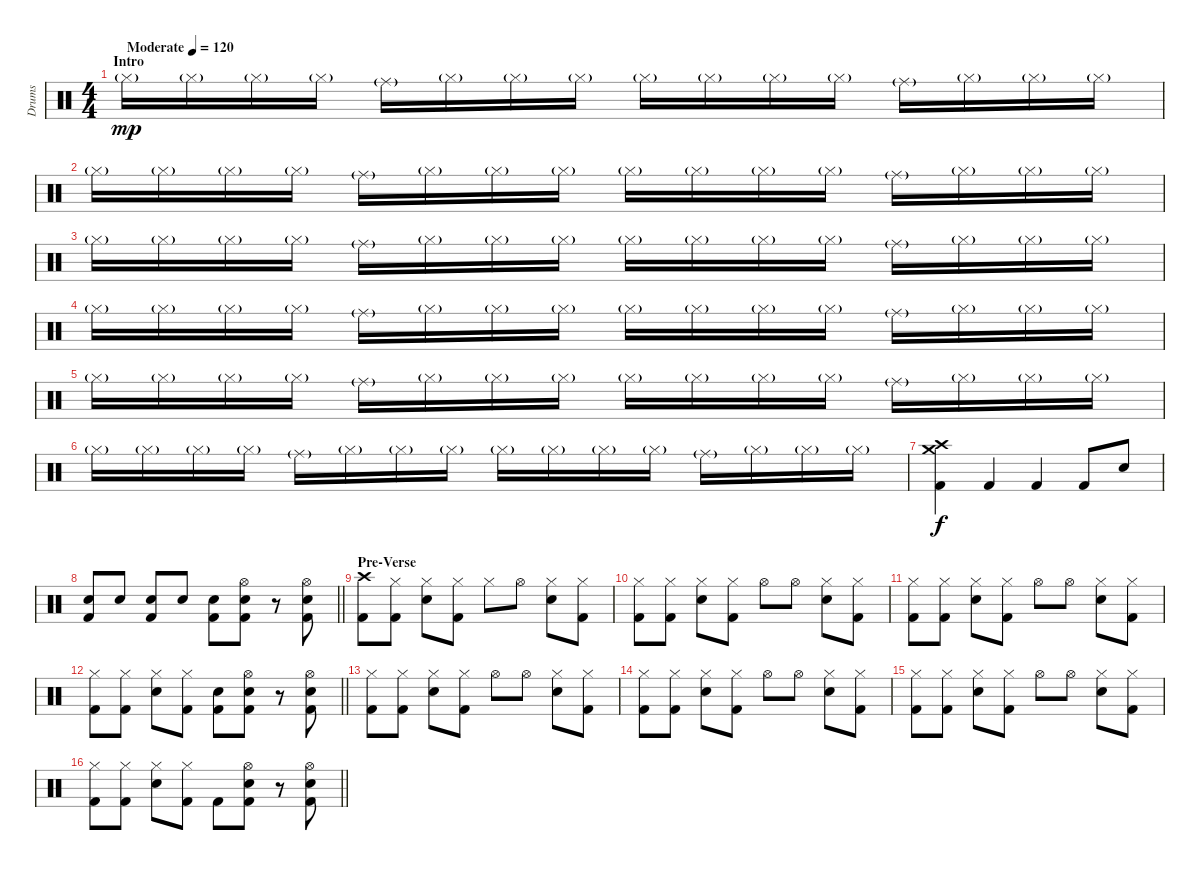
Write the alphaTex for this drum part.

\track ("Drums" "Drums") {instrument percussion}
\staff {score}
\articulation defaults
\ts (4 4)
\section ("" "Intro")
\tempo (120 "Moderate")
\clef neutral
\ks c "Hi-Hat (closed)"{g}.16{dy mp volume 11} "Hi-Hat (closed)"{g}.16 "Hi-Hat (closed)"{g}.16 "Hi-Hat (closed)"{g}.16 "Ride (middle)"{g}.16 "Hi-Hat (closed)"{g}.16 "Hi-Hat (closed)"{g}.16 "Hi-Hat (closed)"{g}.16 "Hi-Hat (closed)"{g}.16 "Hi-Hat (closed)"{g}.16 "Hi-Hat (closed)"{g}.16 "Hi-Hat (closed)"{g}.16 "Ride (middle)"{g}.16 "Hi-Hat (closed)"{g}.16 "Hi-Hat (closed)"{g}.16 "Hi-Hat (closed)"{g}.16
|
"Hi-Hat (closed)"{g}.16 "Hi-Hat (closed)"{g}.16 "Hi-Hat (closed)"{g}.16 "Hi-Hat (closed)"{g}.16 "Ride (middle)"{g}.16 "Hi-Hat (closed)"{g}.16 "Hi-Hat (closed)"{g}.16 "Hi-Hat (closed)"{g}.16 "Hi-Hat (closed)"{g}.16 "Hi-Hat (closed)"{g}.16 "Hi-Hat (closed)"{g}.16 "Hi-Hat (closed)"{g}.16 "Ride (middle)"{g}.16 "Hi-Hat (closed)"{g}.16 "Hi-Hat (closed)"{g}.16 "Hi-Hat (closed)"{g}.16 |
"Hi-Hat (closed)"{g}.16 "Hi-Hat (closed)"{g}.16 "Hi-Hat (closed)"{g}.16 "Hi-Hat (closed)"{g}.16 "Ride (middle)"{g}.16 "Hi-Hat (closed)"{g}.16 "Hi-Hat (closed)"{g}.16 "Hi-Hat (closed)"{g}.16 "Hi-Hat (closed)"{g}.16 "Hi-Hat (closed)"{g}.16 "Hi-Hat (closed)"{g}.16 "Hi-Hat (closed)"{g}.16 "Ride (middle)"{g}.16 "Hi-Hat (closed)"{g}.16 "Hi-Hat (closed)"{g}.16 "Hi-Hat (closed)"{g}.16 |
"Hi-Hat (closed)"{g}.16 "Hi-Hat (closed)"{g}.16 "Hi-Hat (closed)"{g}.16 "Hi-Hat (closed)"{g}.16 "Ride (middle)"{g}.16 "Hi-Hat (closed)"{g}.16 "Hi-Hat (closed)"{g}.16 "Hi-Hat (closed)"{g}.16 "Hi-Hat (closed)"{g}.16 "Hi-Hat (closed)"{g}.16 "Hi-Hat (closed)"{g}.16 "Hi-Hat (closed)"{g}.16 "Ride (middle)"{g}.16 "Hi-Hat (closed)"{g}.16 "Hi-Hat (closed)"{g}.16 "Hi-Hat (closed)"{g}.16 |
"Hi-Hat (closed)"{g}.16 "Hi-Hat (closed)"{g}.16 "Hi-Hat (closed)"{g}.16 "Hi-Hat (closed)"{g}.16 "Ride (middle)"{g}.16 "Hi-Hat (closed)"{g}.16 "Hi-Hat (closed)"{g}.16 "Hi-Hat (closed)"{g}.16 "Hi-Hat (closed)"{g}.16 "Hi-Hat (closed)"{g}.16 "Hi-Hat (closed)"{g}.16 "Hi-Hat (closed)"{g}.16 "Ride (middle)"{g}.16 "Hi-Hat (closed)"{g}.16 "Hi-Hat (closed)"{g}.16 "Hi-Hat (closed)"{g}.16 |
"Hi-Hat (closed)"{g}.16 "Hi-Hat (closed)"{g}.16 "Hi-Hat (closed)"{g}.16 "Hi-Hat (closed)"{g}.16 "Ride (middle)"{g}.16 "Hi-Hat (closed)"{g}.16 "Hi-Hat (closed)"{g}.16 "Hi-Hat (closed)"{g}.16 "Hi-Hat (closed)"{g}.16 "Hi-Hat (closed)"{g}.16 "Hi-Hat (closed)"{g}.16 "Hi-Hat (closed)"{g}.16 "Ride (middle)"{g}.16 "Hi-Hat (closed)"{g}.16 "Hi-Hat (closed)"{g}.16 "Hi-Hat (closed)"{g}.16 |
("Crash high (hit)" "Crash medium (hit)" "Kick (hit) 2").4{dy f volume 14} "Kick (hit) 2".4 "Kick (hit) 2".4 "Kick (hit) 2".8 "Electric Snare (hit)".8 |
\barLineRight lightlight
("Electric Snare (hit)" "Kick (hit) 2").8 "Electric Snare (hit)".8 ("Electric Snare (hit)" "Kick (hit) 2").8 "Electric Snare (hit)".8 ("Electric Snare (hit)" "Kick (hit) 2").8 ("Hi-Hat (open)" "Electric Snare (hit)" "Kick (hit) 2").8 r.8 ("Hi-Hat (open)" "Electric Snare (hit)" "Kick (hit) 2").8 |
\section ("" "Pre-Verse ")
("Crash high (hit)" "Kick (hit) 2").8 ("Hi-Hat (closed)" "Kick (hit) 2").8 ("Hi-Hat (closed)" "Electric Snare (hit)").8 ("Hi-Hat (closed)" "Kick (hit) 2").8 "Hi-Hat (closed)".8 "Hi-Hat (open)".8 ("Hi-Hat (closed)" "Electric Snare (hit)").8 ("Hi-Hat (closed)" "Kick (hit) 2").8 |
("Hi-Hat (closed)" "Kick (hit) 2").8 ("Hi-Hat (closed)" "Kick (hit) 2").8 ("Hi-Hat (closed)" "Electric Snare (hit)").8 ("Hi-Hat (closed)" "Kick (hit) 2").8 "Hi-Hat (open)".8 "Hi-Hat (open)".8 ("Hi-Hat (closed)" "Electric Snare (hit)").8 ("Hi-Hat (closed)" "Kick (hit) 2").8 |
("Hi-Hat (closed)" "Kick (hit) 2").8 ("Hi-Hat (closed)" "Kick (hit) 2").8 ("Hi-Hat (closed)" "Electric Snare (hit)").8 ("Hi-Hat (closed)" "Kick (hit) 2").8 "Hi-Hat (open)".8 "Hi-Hat (open)".8 ("Hi-Hat (closed)" "Electric Snare (hit)").8 ("Hi-Hat (closed)" "Kick (hit) 2").8 |
\barLineRight lightlight
("Hi-Hat (closed)" "Kick (hit) 2").8 ("Hi-Hat (closed)" "Kick (hit) 2").8 ("Hi-Hat (closed)" "Electric Snare (hit)").8 ("Hi-Hat (closed)" "Kick (hit) 2").8 ("Electric Snare (hit)" "Kick (hit) 2").8 ("Hi-Hat (open)" "Electric Snare (hit)" "Kick (hit) 2").8 r.8 ("Hi-Hat (open)" "Electric Snare (hit)" "Kick (hit) 2").8 |
("Hi-Hat (closed)" "Kick (hit) 2").8 ("Hi-Hat (closed)" "Kick (hit) 2").8 ("Hi-Hat (closed)" "Electric Snare (hit)").8 ("Hi-Hat (closed)" "Kick (hit) 2").8 "Hi-Hat (open)".8 "Hi-Hat (open)".8 ("Hi-Hat (closed)" "Electric Snare (hit)").8 ("Hi-Hat (closed)" "Kick (hit) 2").8 |
("Hi-Hat (closed)" "Kick (hit) 2").8 ("Hi-Hat (closed)" "Kick (hit) 2").8 ("Hi-Hat (closed)" "Electric Snare (hit)").8 ("Hi-Hat (closed)" "Kick (hit) 2").8 "Hi-Hat (open)".8 "Hi-Hat (open)".8 ("Hi-Hat (closed)" "Electric Snare (hit)").8 ("Hi-Hat (closed)" "Kick (hit) 2").8 |
("Hi-Hat (closed)" "Kick (hit) 2").8 ("Hi-Hat (closed)" "Kick (hit) 2").8 ("Hi-Hat (closed)" "Electric Snare (hit)").8 ("Hi-Hat (closed)" "Kick (hit) 2").8 "Hi-Hat (open)".8 "Hi-Hat (open)".8 ("Hi-Hat (closed)" "Electric Snare (hit)").8 ("Hi-Hat (closed)" "Kick (hit) 2").8 |
\barLineRight lightlight
("Hi-Hat (closed)" "Kick (hit) 2").8 ("Hi-Hat (closed)" "Kick (hit) 2").8 ("Hi-Hat (closed)" "Electric Snare (hit)").8 ("Hi-Hat (closed)" "Kick (hit) 2").8 "Kick (hit) 2".8 ("Hi-Hat (open)" "Electric Snare (hit)" "Kick (hit) 2").8 r.8 ("Hi-Hat (open)" "Electric Snare (hit)" "Kick (hit) 2").8
